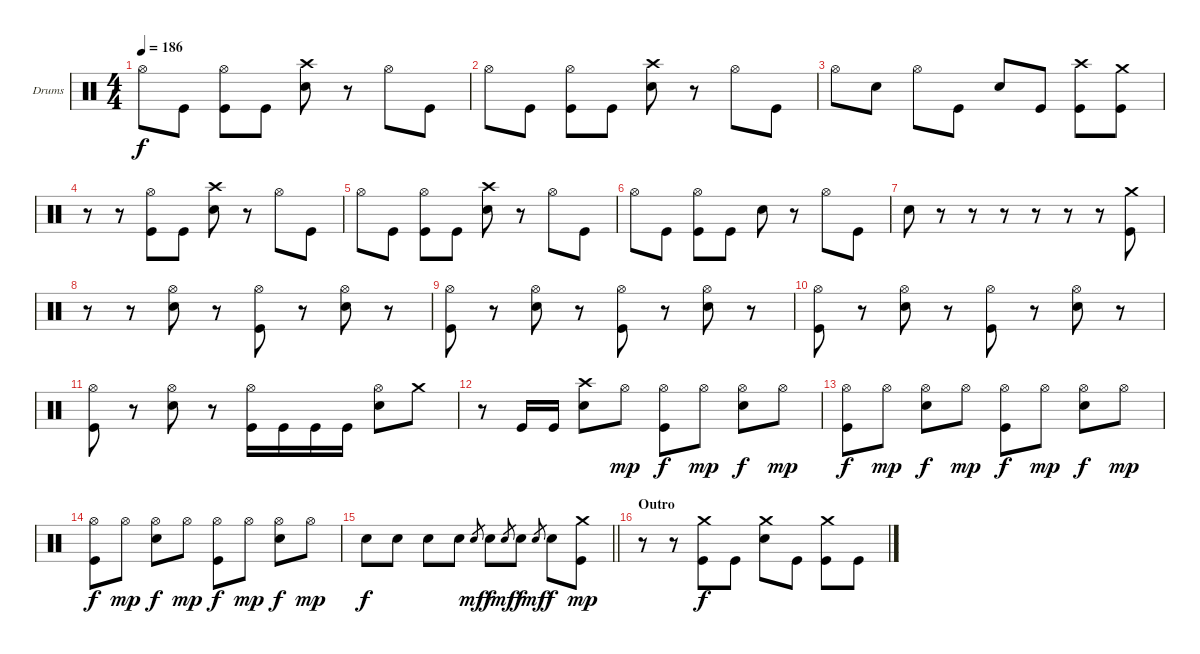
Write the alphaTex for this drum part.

\bracketExtendMode groupsimilarinstruments
\firstSystemTrackNameOrientation horizontal
\otherSystemsTrackNameOrientation horizontal
\track ("Drumkit" "Drums") {instrument percussion}
\staff {score}
\articulation defaults
\ts (4 4)
\tempo 186
\clef neutral
\scale
0.333333
\ks c "Hi-Hat (open)".8{dy f} "Kick (hit)".8
("Hi-Hat (open)" "Kick (hit)").8 "Kick (hit)".8 ("Crash high (hit)" "Snare (hit) 2").8 r.8 "Hi-Hat (open)".8 "Kick (hit)".8 |
\scale
0.333333 "Hi-Hat (open)".8 "Kick (hit)".8 ("Hi-Hat (open)" "Kick (hit)").8 "Kick (hit)".8 ("Crash high (hit)" "Snare (hit) 2").8 r.8 "Hi-Hat (open)".8 "Kick (hit)".8 |
\scale
0.333333 "Hi-Hat (open)".8 "Snare (hit) 2".8 "Hi-Hat (open)".8 "Kick (hit)".8 "Snare (hit) 2".8 "Kick (hit)".8 ("Crash high (hit)" "Kick (hit)").8 ("Crash medium (hit)" "Kick (hit)").8 |
\scale
0.333333 r.8 r.8 ("Hi-Hat (open)" "Kick (hit)").8 "Kick (hit)".8 ("Crash high (hit)" "Snare (hit) 2").8 r.8 "Hi-Hat (open)".8 "Kick (hit)".8 |
\scale
0.333333 "Hi-Hat (open)".8 "Kick (hit)".8 ("Hi-Hat (open)" "Kick (hit)").8 "Kick (hit)".8 ("Crash high (hit)" "Snare (hit) 2").8 r.8 "Hi-Hat (open)".8 "Kick (hit)".8 |
\scale
0.333333 "Hi-Hat (open)".8 "Kick (hit)".8 ("Hi-Hat (open)" "Kick (hit)").8 "Kick (hit)".8 "Snare (hit) 2".8 r.8 "Hi-Hat (open)".8 "Kick (hit)".8 |
\scale
0.333333 "Snare (hit) 2".8 r.8 r.8 r.8 r.8 r.8 r.8 ("Crash medium (hit)" "Kick (hit)").8 |
\scale
0.333333 r.8 r.8 ("Hi-Hat (open)" "Snare (hit) 2").8 r.8 ("Hi-Hat (open)" "Kick (hit)").8 r.8 ("Hi-Hat (open)" "Snare (hit) 2").8 r.8 |
\scale
0.333333 ("Hi-Hat (open)" "Kick (hit)").8 r.8 ("Hi-Hat (open)" "Snare (hit) 2").8 r.8 ("Hi-Hat (open)" "Kick (hit)").8 r.8 ("Hi-Hat (open)" "Snare (hit) 2").8 r.8 |
\scale
0.333333 ("Hi-Hat (open)" "Kick (hit)").8 r.8 ("Hi-Hat (open)" "Snare (hit) 2").8 r.8 ("Hi-Hat (open)" "Kick (hit)").8 r.8 ("Hi-Hat (open)" "Snare (hit) 2").8 r.8 |
\scale
0.333333 ("Hi-Hat (open)" "Kick (hit)").8 r.8 ("Hi-Hat (open)" "Snare (hit) 2").8 r.8 ("Hi-Hat (open)" "Kick (hit)").16 "Kick (hit)".16 "Kick (hit)".16 "Kick (hit)".16 ("Hi-Hat (open)" "Snare (hit) 2").8 "Crash medium (hit)".8 |
\scale
0.333333 r.8 "Kick (hit)".16 "Kick (hit)".16 ("Crash high (hit)" "Snare (hit) 2").8 "Hi-Hat (open)".8{dy mp} ("Hi-Hat (open)" "Kick (hit)").8{dy f} "Hi-Hat (open)".8{dy mp} ("Hi-Hat (open)" "Snare (hit) 2").8{dy f} "Hi-Hat (open)".8{dy mp} |
\scale
0.333333 ("Hi-Hat (open)" "Kick (hit)").8{dy f} "Hi-Hat (open)".8{dy mp} ("Hi-Hat (open)" "Snare (hit) 2").8{dy f} "Hi-Hat (open)".8{dy mp} ("Hi-Hat (open)" "Kick (hit)").8{dy f} "Hi-Hat (open)".8{dy mp} ("Hi-Hat (open)" "Snare (hit) 2").8{dy f} "Hi-Hat (open)".8{dy mp} |
\scale
0.333333 ("Hi-Hat (open)" "Kick (hit)").8{dy f} "Hi-Hat (open)".8{dy mp} ("Hi-Hat (open)" "Snare (hit) 2").8{dy f} "Hi-Hat (open)".8{dy mp} ("Hi-Hat (open)" "Kick (hit)").8{dy f} "Hi-Hat (open)".8{dy mp} ("Hi-Hat (open)" "Snare (hit) 2").8{dy f} "Hi-Hat (open)".8{dy mp} |
\scale
0.333333
\barLineRight lightlight "Snare (hit) 2".8{dy f} "Snare (hit) 2".8 "Snare (hit) 2".8 "Snare (hit) 2".8 "Snare (hit) 2".8{gr dy mf} "Snare (hit) 2".8{dy f} "Snare (hit) 2".8{gr dy mf} "Snare (hit) 2".8{dy f} "Snare (hit) 2".8{gr dy mf} "Snare (hit) 2".8{dy f}
("Crash medium (hit)" "Kick (hit)").8{dy mp} |
\section ("" "Outro")
\scale
0.333333 r.8 r.8 ("Crash medium (hit)" "Kick (hit)").8{dy f} "Kick (hit)".8 ("Crash medium (hit)" "Snare (hit) 2").8 "Kick (hit)".8 ("Crash medium (hit)" "Kick (hit)").8 "Kick (hit)".8
